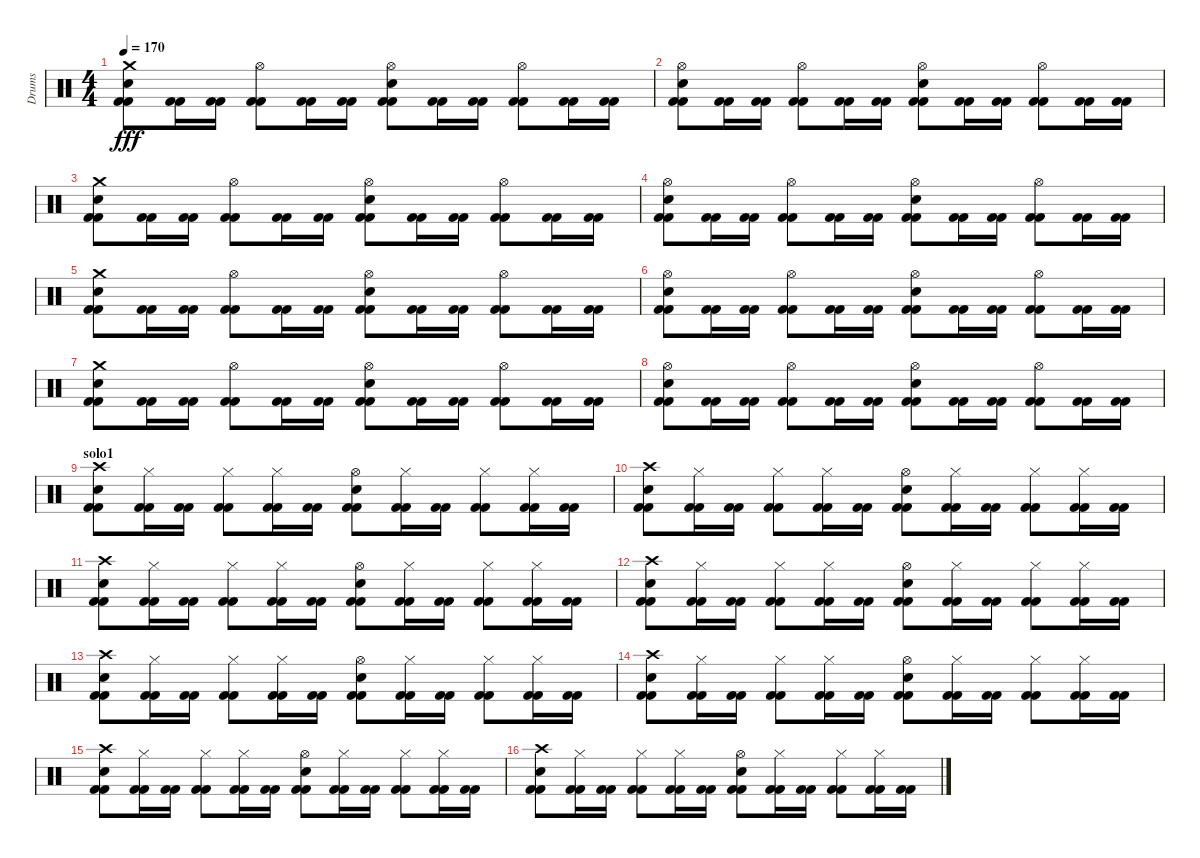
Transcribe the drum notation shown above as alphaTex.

\track ("Drums" "Drums") {instrument percussion}
\staff {score}
\articulation defaults
\ts (4 4)
\tempo 170
\clef neutral
\ks c
("Crash medium (hit)" "Electric Snare (hit)" "Kick (hit) 2" "Kick (hit) 2").8{dy fff} ("Kick (hit) 2" "Kick (hit) 2").16 ("Kick (hit) 2" "Kick (hit) 2").16 ("Hi-Hat (open)" "Kick (hit) 2" "Kick (hit) 2").8 ("Kick (hit) 2" "Kick (hit) 2").16 ("Kick (hit) 2" "Kick (hit) 2").16 ("Hi-Hat (open)" "Electric Snare (hit)" "Kick (hit) 2" "Kick (hit) 2").8 ("Kick (hit) 2" "Kick (hit) 2").16 ("Kick (hit) 2" "Kick (hit) 2").16 ("Hi-Hat (open)" "Kick (hit) 2" "Kick (hit) 2").8 ("Kick (hit) 2" "Kick (hit) 2").16 ("Kick (hit) 2" "Kick (hit) 2").16 |
("Hi-Hat (open)" "Electric Snare (hit)" "Kick (hit) 2" "Kick (hit) 2").8 ("Kick (hit) 2" "Kick (hit) 2").16 ("Kick (hit) 2" "Kick (hit) 2").16 ("Hi-Hat (open)" "Kick (hit) 2" "Kick (hit) 2").8 ("Kick (hit) 2" "Kick (hit) 2").16 ("Kick (hit) 2" "Kick (hit) 2").16 ("Hi-Hat (open)" "Electric Snare (hit)" "Kick (hit) 2" "Kick (hit) 2").8 ("Kick (hit) 2" "Kick (hit) 2").16 ("Kick (hit) 2" "Kick (hit) 2").16 ("Hi-Hat (open)" "Kick (hit) 2" "Kick (hit) 2").8 ("Kick (hit) 2" "Kick (hit) 2").16 ("Kick (hit) 2" "Kick (hit) 2").16 |
("Crash medium (hit)" "Electric Snare (hit)" "Kick (hit) 2" "Kick (hit) 2").8 ("Kick (hit) 2" "Kick (hit) 2").16 ("Kick (hit) 2" "Kick (hit) 2").16 ("Hi-Hat (open)" "Kick (hit) 2" "Kick (hit) 2").8 ("Kick (hit) 2" "Kick (hit) 2").16 ("Kick (hit) 2" "Kick (hit) 2").16 ("Hi-Hat (open)" "Electric Snare (hit)" "Kick (hit) 2" "Kick (hit) 2").8 ("Kick (hit) 2" "Kick (hit) 2").16 ("Kick (hit) 2" "Kick (hit) 2").16 ("Hi-Hat (open)" "Kick (hit) 2" "Kick (hit) 2").8 ("Kick (hit) 2" "Kick (hit) 2").16 ("Kick (hit) 2" "Kick (hit) 2").16 |
("Hi-Hat (open)" "Electric Snare (hit)" "Kick (hit) 2" "Kick (hit) 2").8 ("Kick (hit) 2" "Kick (hit) 2").16 ("Kick (hit) 2" "Kick (hit) 2").16 ("Hi-Hat (open)" "Kick (hit) 2" "Kick (hit) 2").8 ("Kick (hit) 2" "Kick (hit) 2").16 ("Kick (hit) 2" "Kick (hit) 2").16 ("Hi-Hat (open)" "Electric Snare (hit)" "Kick (hit) 2" "Kick (hit) 2").8 ("Kick (hit) 2" "Kick (hit) 2").16 ("Kick (hit) 2" "Kick (hit) 2").16 ("Hi-Hat (open)" "Kick (hit) 2" "Kick (hit) 2").8 ("Kick (hit) 2" "Kick (hit) 2").16 ("Kick (hit) 2" "Kick (hit) 2").16 |
("Crash medium (hit)" "Electric Snare (hit)" "Kick (hit) 2" "Kick (hit) 2").8 ("Kick (hit) 2" "Kick (hit) 2").16 ("Kick (hit) 2" "Kick (hit) 2").16 ("Hi-Hat (open)" "Kick (hit) 2" "Kick (hit) 2").8 ("Kick (hit) 2" "Kick (hit) 2").16 ("Kick (hit) 2" "Kick (hit) 2").16 ("Hi-Hat (open)" "Electric Snare (hit)" "Kick (hit) 2" "Kick (hit) 2").8 ("Kick (hit) 2" "Kick (hit) 2").16 ("Kick (hit) 2" "Kick (hit) 2").16 ("Hi-Hat (open)" "Kick (hit) 2" "Kick (hit) 2").8 ("Kick (hit) 2" "Kick (hit) 2").16 ("Kick (hit) 2" "Kick (hit) 2").16 |
("Hi-Hat (open)" "Electric Snare (hit)" "Kick (hit) 2" "Kick (hit) 2").8 ("Kick (hit) 2" "Kick (hit) 2").16 ("Kick (hit) 2" "Kick (hit) 2").16 ("Hi-Hat (open)" "Kick (hit) 2" "Kick (hit) 2").8 ("Kick (hit) 2" "Kick (hit) 2").16 ("Kick (hit) 2" "Kick (hit) 2").16 ("Hi-Hat (open)" "Electric Snare (hit)" "Kick (hit) 2" "Kick (hit) 2").8 ("Kick (hit) 2" "Kick (hit) 2").16 ("Kick (hit) 2" "Kick (hit) 2").16 ("Hi-Hat (open)" "Kick (hit) 2" "Kick (hit) 2").8 ("Kick (hit) 2" "Kick (hit) 2").16 ("Kick (hit) 2" "Kick (hit) 2").16 |
("Crash medium (hit)" "Electric Snare (hit)" "Kick (hit) 2" "Kick (hit) 2").8 ("Kick (hit) 2" "Kick (hit) 2").16 ("Kick (hit) 2" "Kick (hit) 2").16 ("Hi-Hat (open)" "Kick (hit) 2" "Kick (hit) 2").8 ("Kick (hit) 2" "Kick (hit) 2").16 ("Kick (hit) 2" "Kick (hit) 2").16 ("Hi-Hat (open)" "Electric Snare (hit)" "Kick (hit) 2" "Kick (hit) 2").8 ("Kick (hit) 2" "Kick (hit) 2").16 ("Kick (hit) 2" "Kick (hit) 2").16 ("Hi-Hat (open)" "Kick (hit) 2" "Kick (hit) 2").8 ("Kick (hit) 2" "Kick (hit) 2").16 ("Kick (hit) 2" "Kick (hit) 2").16 |
("Hi-Hat (open)" "Electric Snare (hit)" "Kick (hit) 2" "Kick (hit) 2").8 ("Kick (hit) 2" "Kick (hit) 2").16 ("Kick (hit) 2" "Kick (hit) 2").16 ("Hi-Hat (open)" "Kick (hit) 2" "Kick (hit) 2").8 ("Kick (hit) 2" "Kick (hit) 2").16 ("Kick (hit) 2" "Kick (hit) 2").16 ("Hi-Hat (open)" "Electric Snare (hit)" "Kick (hit) 2" "Kick (hit) 2").8 ("Kick (hit) 2" "Kick (hit) 2").16 ("Kick (hit) 2" "Kick (hit) 2").16 ("Hi-Hat (open)" "Kick (hit) 2" "Kick (hit) 2").8 ("Kick (hit) 2" "Kick (hit) 2").16 ("Kick (hit) 2" "Kick (hit) 2").16 |
\section ("" "solo1")
("Crash high (hit)" "Electric Snare (hit)" "Kick (hit) 2" "Kick (hit) 2").8 ("Hi-Hat (closed)" "Kick (hit) 2" "Kick (hit) 2").16 ("Kick (hit) 2" "Kick (hit) 2").16 ("Hi-Hat (closed)" "Kick (hit) 2" "Kick (hit) 2").8 ("Hi-Hat (closed)" "Kick (hit) 2" "Kick (hit) 2").16 ("Kick (hit) 2" "Kick (hit) 2").16 ("Hi-Hat (open)" "Electric Snare (hit)" "Kick (hit) 2" "Kick (hit) 2").8 ("Hi-Hat (closed)" "Kick (hit) 2" "Kick (hit) 2").16 ("Kick (hit) 2" "Kick (hit) 2").16 ("Hi-Hat (closed)" "Kick (hit) 2" "Kick (hit) 2").8 ("Hi-Hat (closed)" "Kick (hit) 2" "Kick (hit) 2").16 ("Kick (hit) 2" "Kick (hit) 2").16 |
("Crash high (hit)" "Electric Snare (hit)" "Kick (hit) 2" "Kick (hit) 2").8 ("Hi-Hat (closed)" "Kick (hit) 2" "Kick (hit) 2").16 ("Kick (hit) 2" "Kick (hit) 2").16 ("Hi-Hat (closed)" "Kick (hit) 2" "Kick (hit) 2").8 ("Hi-Hat (closed)" "Kick (hit) 2" "Kick (hit) 2").16 ("Kick (hit) 2" "Kick (hit) 2").16 ("Hi-Hat (open)" "Electric Snare (hit)" "Kick (hit) 2" "Kick (hit) 2").8 ("Hi-Hat (closed)" "Kick (hit) 2" "Kick (hit) 2").16 ("Kick (hit) 2" "Kick (hit) 2").16 ("Hi-Hat (closed)" "Kick (hit) 2" "Kick (hit) 2").8 ("Hi-Hat (closed)" "Kick (hit) 2" "Kick (hit) 2").16 ("Kick (hit) 2" "Kick (hit) 2").16 |
("Crash high (hit)" "Electric Snare (hit)" "Kick (hit) 2" "Kick (hit) 2").8 ("Hi-Hat (closed)" "Kick (hit) 2" "Kick (hit) 2").16 ("Kick (hit) 2" "Kick (hit) 2").16 ("Hi-Hat (closed)" "Kick (hit) 2" "Kick (hit) 2").8 ("Hi-Hat (closed)" "Kick (hit) 2" "Kick (hit) 2").16 ("Kick (hit) 2" "Kick (hit) 2").16 ("Hi-Hat (open)" "Electric Snare (hit)" "Kick (hit) 2" "Kick (hit) 2").8 ("Hi-Hat (closed)" "Kick (hit) 2" "Kick (hit) 2").16 ("Kick (hit) 2" "Kick (hit) 2").16 ("Hi-Hat (closed)" "Kick (hit) 2" "Kick (hit) 2").8 ("Hi-Hat (closed)" "Kick (hit) 2" "Kick (hit) 2").16 ("Kick (hit) 2" "Kick (hit) 2").16 |
("Crash high (hit)" "Electric Snare (hit)" "Kick (hit) 2" "Kick (hit) 2").8 ("Hi-Hat (closed)" "Kick (hit) 2" "Kick (hit) 2").16 ("Kick (hit) 2" "Kick (hit) 2").16 ("Hi-Hat (closed)" "Kick (hit) 2" "Kick (hit) 2").8 ("Hi-Hat (closed)" "Kick (hit) 2" "Kick (hit) 2").16 ("Kick (hit) 2" "Kick (hit) 2").16 ("Hi-Hat (open)" "Electric Snare (hit)" "Kick (hit) 2" "Kick (hit) 2").8 ("Hi-Hat (closed)" "Kick (hit) 2" "Kick (hit) 2").16 ("Kick (hit) 2" "Kick (hit) 2").16 ("Hi-Hat (closed)" "Kick (hit) 2" "Kick (hit) 2").8 ("Hi-Hat (closed)" "Kick (hit) 2" "Kick (hit) 2").16 ("Kick (hit) 2" "Kick (hit) 2").16 |
("Crash high (hit)" "Electric Snare (hit)" "Kick (hit) 2" "Kick (hit) 2").8 ("Hi-Hat (closed)" "Kick (hit) 2" "Kick (hit) 2").16 ("Kick (hit) 2" "Kick (hit) 2").16 ("Hi-Hat (closed)" "Kick (hit) 2" "Kick (hit) 2").8 ("Hi-Hat (closed)" "Kick (hit) 2" "Kick (hit) 2").16 ("Kick (hit) 2" "Kick (hit) 2").16 ("Hi-Hat (open)" "Electric Snare (hit)" "Kick (hit) 2" "Kick (hit) 2").8 ("Hi-Hat (closed)" "Kick (hit) 2" "Kick (hit) 2").16 ("Kick (hit) 2" "Kick (hit) 2").16 ("Hi-Hat (closed)" "Kick (hit) 2" "Kick (hit) 2").8 ("Hi-Hat (closed)" "Kick (hit) 2" "Kick (hit) 2").16 ("Kick (hit) 2" "Kick (hit) 2").16 |
("Crash high (hit)" "Electric Snare (hit)" "Kick (hit) 2" "Kick (hit) 2").8 ("Hi-Hat (closed)" "Kick (hit) 2" "Kick (hit) 2").16 ("Kick (hit) 2" "Kick (hit) 2").16 ("Hi-Hat (closed)" "Kick (hit) 2" "Kick (hit) 2").8 ("Hi-Hat (closed)" "Kick (hit) 2" "Kick (hit) 2").16 ("Kick (hit) 2" "Kick (hit) 2").16 ("Hi-Hat (open)" "Electric Snare (hit)" "Kick (hit) 2" "Kick (hit) 2").8 ("Hi-Hat (closed)" "Kick (hit) 2" "Kick (hit) 2").16 ("Kick (hit) 2" "Kick (hit) 2").16 ("Hi-Hat (closed)" "Kick (hit) 2" "Kick (hit) 2").8 ("Hi-Hat (closed)" "Kick (hit) 2" "Kick (hit) 2").16 ("Kick (hit) 2" "Kick (hit) 2").16 |
("Crash high (hit)" "Electric Snare (hit)" "Kick (hit) 2" "Kick (hit) 2").8 ("Hi-Hat (closed)" "Kick (hit) 2" "Kick (hit) 2").16 ("Kick (hit) 2" "Kick (hit) 2").16 ("Hi-Hat (closed)" "Kick (hit) 2" "Kick (hit) 2").8 ("Hi-Hat (closed)" "Kick (hit) 2" "Kick (hit) 2").16 ("Kick (hit) 2" "Kick (hit) 2").16 ("Hi-Hat (open)" "Electric Snare (hit)" "Kick (hit) 2" "Kick (hit) 2").8 ("Hi-Hat (closed)" "Kick (hit) 2" "Kick (hit) 2").16 ("Kick (hit) 2" "Kick (hit) 2").16 ("Hi-Hat (closed)" "Kick (hit) 2" "Kick (hit) 2").8 ("Hi-Hat (closed)" "Kick (hit) 2" "Kick (hit) 2").16 ("Kick (hit) 2" "Kick (hit) 2").16 |
("Crash high (hit)" "Electric Snare (hit)" "Kick (hit) 2" "Kick (hit) 2").8 ("Hi-Hat (closed)" "Kick (hit) 2" "Kick (hit) 2").16 ("Kick (hit) 2" "Kick (hit) 2").16 ("Hi-Hat (closed)" "Kick (hit) 2" "Kick (hit) 2").8 ("Hi-Hat (closed)" "Kick (hit) 2" "Kick (hit) 2").16 ("Kick (hit) 2" "Kick (hit) 2").16 ("Hi-Hat (open)" "Electric Snare (hit)" "Kick (hit) 2" "Kick (hit) 2").8 ("Hi-Hat (closed)" "Kick (hit) 2" "Kick (hit) 2").16 ("Kick (hit) 2" "Kick (hit) 2").16 ("Hi-Hat (closed)" "Kick (hit) 2" "Kick (hit) 2").8 ("Hi-Hat (closed)" "Kick (hit) 2" "Kick (hit) 2").16 ("Kick (hit) 2" "Kick (hit) 2").16
